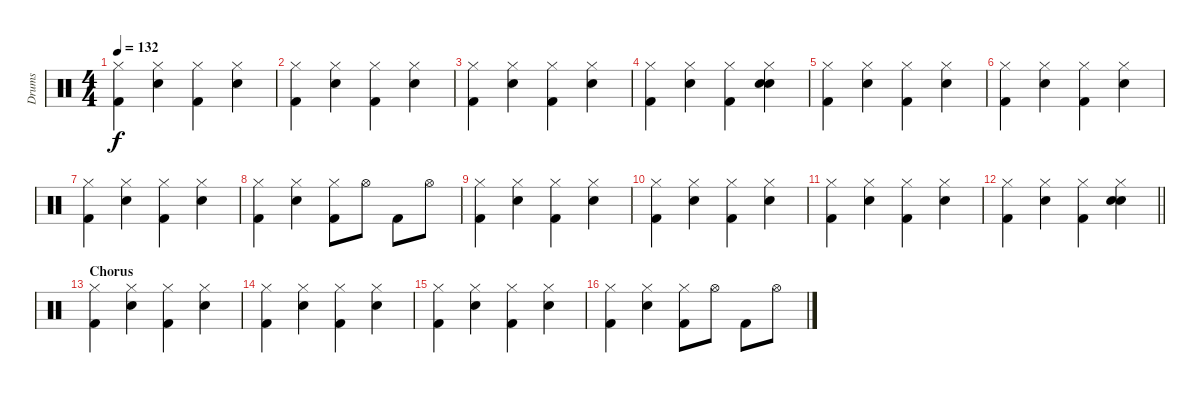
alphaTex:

\track ("Drums" "Drums") {instrument percussion}
\staff {score}
\articulation defaults
\ts (4 4)
\tempo 132
\clef neutral
\ks c
("Hi-Hat (closed)" "Kick (hit) 2").4{dy f} ("Hi-Hat (closed)" "Snare (hit) 2").4 ("Hi-Hat (closed)" "Kick (hit) 2").4 ("Hi-Hat (closed)" "Snare (hit) 2").4 |
("Hi-Hat (closed)" "Kick (hit) 2").4 ("Hi-Hat (closed)" "Snare (hit) 2").4 ("Hi-Hat (closed)" "Kick (hit) 2").4 ("Hi-Hat (closed)" "Snare (hit) 2").4 |
("Hi-Hat (closed)" "Kick (hit) 2").4 ("Hi-Hat (closed)" "Snare (hit) 2").4 ("Hi-Hat (closed)" "Kick (hit) 2").4 ("Hi-Hat (closed)" "Snare (hit) 2").4 |
("Hi-Hat (closed)" "Kick (hit) 2").4 ("Hi-Hat (closed)" "Snare (hit) 2").4 ("Hi-Hat (closed)" "Kick (hit) 2").4 ("Hi-Hat (closed)" "Hand Clap (hit)" "Snare (hit) 2").4 |
("Hi-Hat (closed)" "Kick (hit) 2").4 ("Hi-Hat (closed)" "Snare (hit) 2").4 ("Hi-Hat (closed)" "Kick (hit) 2").4 ("Hi-Hat (closed)" "Snare (hit) 2").4 |
("Hi-Hat (closed)" "Kick (hit) 2").4 ("Hi-Hat (closed)" "Snare (hit) 2").4 ("Hi-Hat (closed)" "Kick (hit) 2").4 ("Hi-Hat (closed)" "Snare (hit) 2").4 |
("Hi-Hat (closed)" "Kick (hit) 2").4 ("Hi-Hat (closed)" "Snare (hit) 2").4 ("Hi-Hat (closed)" "Kick (hit) 2").4 ("Hi-Hat (closed)" "Snare (hit) 2").4 |
("Hi-Hat (closed)" "Kick (hit) 2").4 ("Hi-Hat (closed)" "Snare (hit) 2").4 ("Hi-Hat (closed)" "Kick (hit) 2").8 "Hi-Hat (open)".8 "Kick (hit) 2".8 "Hi-Hat (open)".8 |
("Hi-Hat (closed)" "Kick (hit) 2").4 ("Hi-Hat (closed)" "Snare (hit) 2").4 ("Hi-Hat (closed)" "Kick (hit) 2").4 ("Hi-Hat (closed)" "Snare (hit) 2").4 |
("Hi-Hat (closed)" "Kick (hit) 2").4 ("Hi-Hat (closed)" "Snare (hit) 2").4 ("Hi-Hat (closed)" "Kick (hit) 2").4 ("Hi-Hat (closed)" "Snare (hit) 2").4 |
("Hi-Hat (closed)" "Kick (hit) 2").4 ("Hi-Hat (closed)" "Snare (hit) 2").4 ("Hi-Hat (closed)" "Kick (hit) 2").4 ("Hi-Hat (closed)" "Snare (hit) 2").4 |
\barLineRight lightlight
("Hi-Hat (closed)" "Kick (hit) 2").4 ("Hi-Hat (closed)" "Snare (hit) 2").4 ("Hi-Hat (closed)" "Kick (hit) 2").4 ("Hi-Hat (closed)" "Hand Clap (hit)" "Snare (hit) 2").4 |
\section ("" "Chorus")
("Hi-Hat (closed)" "Kick (hit) 2").4 ("Hi-Hat (closed)" "Snare (hit) 2").4 ("Hi-Hat (closed)" "Kick (hit) 2").4 ("Hi-Hat (closed)" "Snare (hit) 2").4 |
("Hi-Hat (closed)" "Kick (hit) 2").4 ("Hi-Hat (closed)" "Snare (hit) 2").4 ("Hi-Hat (closed)" "Kick (hit) 2").4 ("Hi-Hat (closed)" "Snare (hit) 2").4 |
("Hi-Hat (closed)" "Kick (hit) 2").4 ("Hi-Hat (closed)" "Snare (hit) 2").4 ("Hi-Hat (closed)" "Kick (hit) 2").4 ("Hi-Hat (closed)" "Snare (hit) 2").4 |
("Hi-Hat (closed)" "Kick (hit) 2").4 ("Hi-Hat (closed)" "Snare (hit) 2").4 ("Hi-Hat (closed)" "Kick (hit) 2").8 "Hi-Hat (open)".8 "Kick (hit) 2".8 "Hi-Hat (open)".8
